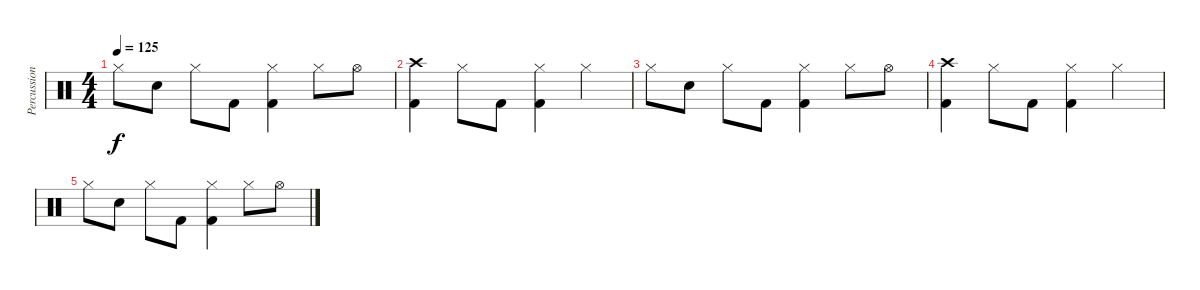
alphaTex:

\track ("Percussion" "Percussion") {instrument percussion}
\staff {score}
\articulation defaults
\ts (4 4)
\tempo 125
\clef neutral
\ks c "Hi-Hat (closed)".8{dy f} "Snare (hit) 2".8 "Hi-Hat (closed)".8 "Kick (hit) 2".8
("Hi-Hat (closed)" "Kick (hit) 2").4 "Hi-Hat (closed)".8 "Hi-Hat (open)".8 |
("Crash high (hit)" "Kick (hit) 2").4 "Hi-Hat (closed)".8 "Kick (hit) 2".8 ("Hi-Hat (closed)" "Kick (hit) 2").4 "Hi-Hat (closed)".4 |
"Hi-Hat (closed)".8 "Snare (hit) 2".8 "Hi-Hat (closed)".8 "Kick (hit) 2".8 ("Hi-Hat (closed)" "Kick (hit) 2").4 "Hi-Hat (closed)".8 "Hi-Hat (open)".8 |
("Crash high (hit)" "Kick (hit) 2").4 "Hi-Hat (closed)".8 "Kick (hit) 2".8 ("Hi-Hat (closed)" "Kick (hit) 2").4 "Hi-Hat (closed)".4 |
"Hi-Hat (closed)".8 "Snare (hit) 2".8 "Hi-Hat (closed)".8 "Kick (hit) 2".8 ("Hi-Hat (closed)" "Kick (hit) 2").4 "Hi-Hat (closed)".8 "Hi-Hat (open)".8
